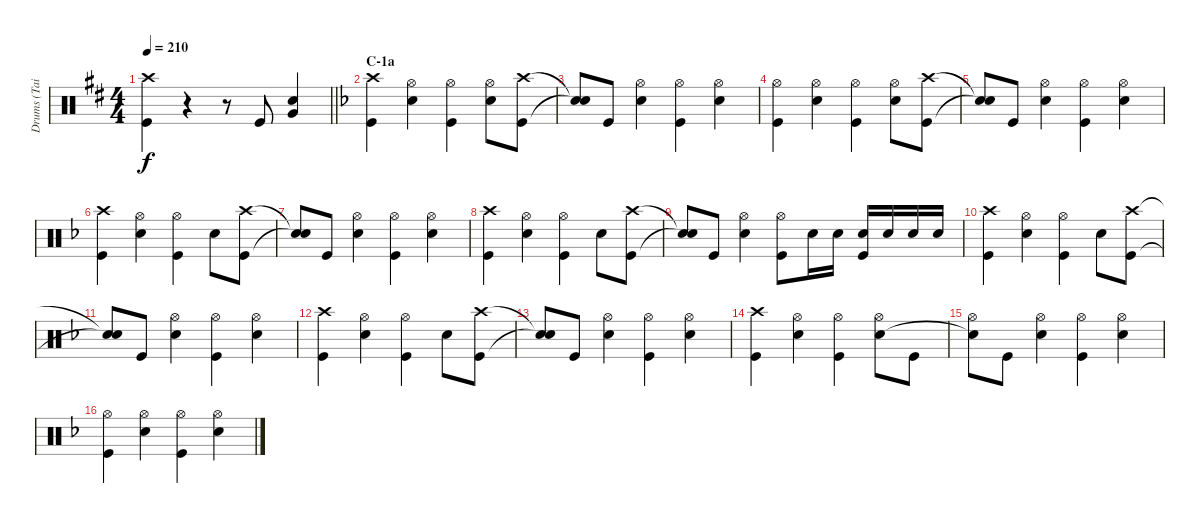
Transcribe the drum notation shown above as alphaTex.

\track ("Drums (Tainaka Ritsu)" "Drums (Tai") {instrument percussion}
\staff {score}
\articulation defaults
\ts (4 4)
\tempo 210
\clef neutral
\barLineRight lightlight
\ks d
("Crash high (hit)" "Kick (hit)").4{dy f} r.4 r.8 "Kick (hit)".8 ("Snare (hit) 2" "Very Low Tom (hit)").4 |
\section ("" "C-1a")
\ks f
("Crash high (hit)" "Kick (hit)").4 ("Hi-Hat (open)" "Snare (hit) 2").4 ("Hi-Hat (open)" "Kick (hit)").4 ("Hi-Hat (open)" "Snare (hit) 2").8 ("Crash high (hit)" "Kick (hit)").8 |
("Snare (hit)"{t} "Snare (hit)"{t}).8 "Kick (hit)".8 ("Hi-Hat (open)" "Snare (hit) 2").4 ("Hi-Hat (open)" "Kick (hit)").4 ("Hi-Hat (open)" "Snare (hit) 2").4 |
("Hi-Hat (open)" "Kick (hit)").4 ("Hi-Hat (open)" "Snare (hit) 2").4 ("Hi-Hat (open)" "Kick (hit)").4 ("Hi-Hat (open)" "Snare (hit) 2").8 ("Crash high (hit)" "Kick (hit)").8 |
("Snare (hit)"{t} "Snare (hit)"{t}).8 "Kick (hit)".8 ("Hi-Hat (open)" "Snare (hit) 2").4 ("Hi-Hat (open)" "Kick (hit)").4 ("Hi-Hat (open)" "Snare (hit) 2").4 |
("Crash high (hit)" "Kick (hit)").4 ("Hi-Hat (open)" "Snare (hit) 2").4 ("Hi-Hat (open)" "Kick (hit)").4 "Snare (hit) 2".8 ("Crash high (hit)" "Kick (hit)").8 |
("Snare (hit)"{t} "Snare (hit)"{t}).8 "Kick (hit)".8 ("Hi-Hat (open)" "Snare (hit) 2").4 ("Hi-Hat (open)" "Kick (hit)").4 ("Hi-Hat (open)" "Snare (hit) 2").4 |
("Crash high (hit)" "Kick (hit)").4 ("Hi-Hat (open)" "Snare (hit) 2").4 ("Hi-Hat (open)" "Kick (hit)").4 "Snare (hit) 2".8 ("Crash high (hit)" "Kick (hit)").8 |
("Snare (hit)"{t} "Snare (hit)"{t}).8 "Kick (hit)".8 ("Hi-Hat (open)" "Snare (hit) 2").4 ("Hi-Hat (open)" "Kick (hit)").8 "Snare (hit) 2".16 "Snare (hit) 2".16 ("Snare (hit) 2" "Kick (hit)").16 "Snare (hit) 2".16 "Snare (hit) 2".16 "Snare (hit) 2".16 |
("Crash high (hit)" "Kick (hit)").4 ("Hi-Hat (open)" "Snare (hit) 2").4 ("Hi-Hat (open)" "Kick (hit)").4 "Snare (hit) 2".8 ("Crash high (hit)" "Kick (hit)").8 |
("Snare (hit)"{t} "Snare (hit)"{t}).8 "Kick (hit)".8 ("Hi-Hat (open)" "Snare (hit) 2").4 ("Hi-Hat (open)" "Kick (hit)").4 ("Hi-Hat (open)" "Snare (hit) 2").4 |
("Crash high (hit)" "Kick (hit)").4 ("Hi-Hat (open)" "Snare (hit) 2").4 ("Hi-Hat (open)" "Kick (hit)").4 "Snare (hit) 2".8 ("Crash high (hit)" "Kick (hit)").8 |
("Snare (hit)"{t} "Snare (hit)"{t}).8 "Kick (hit)".8 ("Hi-Hat (open)" "Snare (hit) 2").4 ("Hi-Hat (open)" "Kick (hit)").4 ("Hi-Hat (open)" "Snare (hit) 2").4 |
("Crash high (hit)" "Kick (hit)").4 ("Hi-Hat (open)" "Snare (hit) 2").4 ("Hi-Hat (open)" "Kick (hit)").4 ("Hi-Hat (open)" "Snare (hit) 2").8 "Kick (hit)".8 |
("Hi-Hat (open)" "Snare (hit)"{t}).8 "Kick (hit)".8 ("Hi-Hat (open)" "Snare (hit) 2").4 ("Hi-Hat (open)" "Kick (hit)").4 ("Hi-Hat (open)" "Snare (hit) 2").4 |
("Hi-Hat (open)" "Kick (hit)").4 ("Hi-Hat (open)" "Snare (hit) 2").4 ("Hi-Hat (open)" "Kick (hit)").4 ("Hi-Hat (open)" "Snare (hit) 2").4
